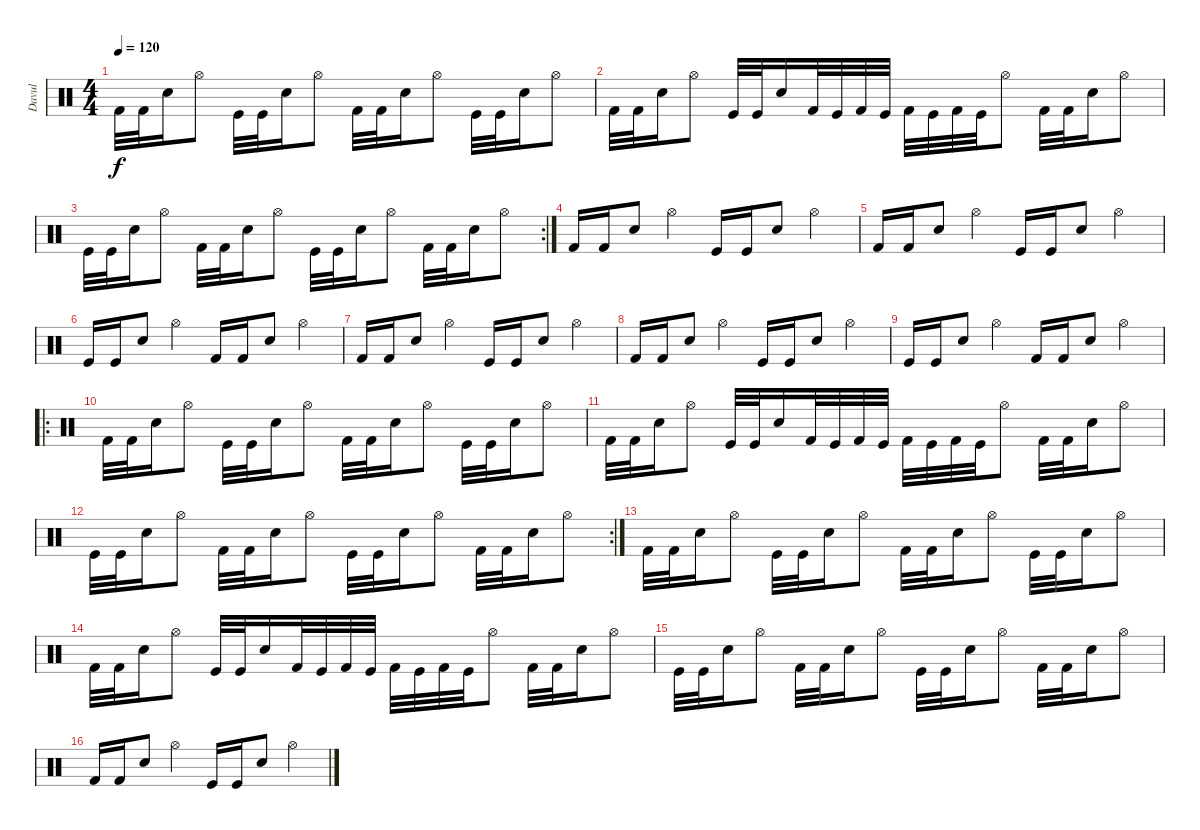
\track ("Davul" "Davul") {instrument percussion}
\staff {score}
\articulation defaults
\ts (4 4)
\tempo 120
\clef neutral
\ks c "Kick (hit) 2".32{dy f} "Kick (hit) 2".32 "Electric Snare (hit)".16 "Hi-Hat (open)".8 "Kick (hit)".32 "Kick (hit)".32 "Snare (hit) 2".16 "Hi-Hat (open)".8 "Kick (hit) 2".32 "Kick (hit) 2".32 "Electric Snare (hit)".16 "Hi-Hat (open)".8 "Kick (hit)".32 "Kick (hit)".32 "Snare (hit) 2".16 "Hi-Hat (open)".8
|
"Kick (hit) 2".32 "Kick (hit) 2".32 "Electric Snare (hit)".16 "Hi-Hat (open)".8 "Kick (hit)".32 "Kick (hit)".32 "Snare (hit) 2".16 "Kick (hit) 2".32 "Kick (hit)".32 "Kick (hit) 2".32 "Kick (hit)".32 "Kick (hit) 2".32 "Kick (hit)".32 "Kick (hit) 2".32 "Kick (hit)".32 "Hi-Hat (open)".8 "Kick (hit) 2".32 "Kick (hit) 2".32 "Electric Snare (hit)".16 "Hi-Hat (open)".8 |
\rc 2 "Kick (hit)".32 "Kick (hit)".32 "Snare (hit) 2".16 "Hi-Hat (open)".8 "Kick (hit) 2".32 "Kick (hit) 2".32 "Electric Snare (hit)".16 "Hi-Hat (open)".8 "Kick (hit)".32 "Kick (hit)".32 "Snare (hit) 2".16 "Hi-Hat (open)".8 "Kick (hit) 2".32 "Kick (hit) 2".32 "Electric Snare (hit)".16 "Hi-Hat (open)".8
|
"Kick (hit) 2".16 "Kick (hit) 2".16 "Electric Snare (hit)".8 "Hi-Hat (open)".4 "Kick (hit)".16 "Kick (hit)".16 "Snare (hit) 2".8 "Hi-Hat (open)".4 |
"Kick (hit) 2".16 "Kick (hit) 2".16 "Electric Snare (hit)".8 "Hi-Hat (open)".4 "Kick (hit)".16 "Kick (hit)".16 "Snare (hit) 2".8 "Hi-Hat (open)".4 |
"Kick (hit)".16 "Kick (hit)".16 "Snare (hit) 2".8 "Hi-Hat (open)".4 "Kick (hit) 2".16 "Kick (hit) 2".16 "Electric Snare (hit)".8 "Hi-Hat (open)".4 |
"Kick (hit) 2".16 "Kick (hit) 2".16 "Electric Snare (hit)".8 "Hi-Hat (open)".4 "Kick (hit)".16 "Kick (hit)".16 "Snare (hit) 2".8 "Hi-Hat (open)".4 |
"Kick (hit) 2".16 "Kick (hit) 2".16 "Electric Snare (hit)".8 "Hi-Hat (open)".4 "Kick (hit)".16 "Kick (hit)".16 "Snare (hit) 2".8 "Hi-Hat (open)".4 |
"Kick (hit)".16 "Kick (hit)".16 "Snare (hit) 2".8 "Hi-Hat (open)".4 "Kick (hit) 2".16 "Kick (hit) 2".16 "Electric Snare (hit)".8 "Hi-Hat (open)".4 |
\ro "Kick (hit) 2".32 "Kick (hit) 2".32 "Electric Snare (hit)".16 "Hi-Hat (open)".8 "Kick (hit)".32 "Kick (hit)".32 "Snare (hit) 2".16 "Hi-Hat (open)".8 "Kick (hit) 2".32 "Kick (hit) 2".32 "Electric Snare (hit)".16 "Hi-Hat (open)".8 "Kick (hit)".32 "Kick (hit)".32 "Snare (hit) 2".16 "Hi-Hat (open)".8
|
"Kick (hit) 2".32 "Kick (hit) 2".32 "Electric Snare (hit)".16 "Hi-Hat (open)".8 "Kick (hit)".32 "Kick (hit)".32 "Snare (hit) 2".16 "Kick (hit) 2".32 "Kick (hit)".32 "Kick (hit) 2".32 "Kick (hit)".32 "Kick (hit) 2".32 "Kick (hit)".32 "Kick (hit) 2".32 "Kick (hit)".32 "Hi-Hat (open)".8 "Kick (hit) 2".32 "Kick (hit) 2".32 "Electric Snare (hit)".16 "Hi-Hat (open)".8 |
\rc 2 "Kick (hit)".32 "Kick (hit)".32 "Snare (hit) 2".16 "Hi-Hat (open)".8 "Kick (hit) 2".32 "Kick (hit) 2".32 "Electric Snare (hit)".16 "Hi-Hat (open)".8 "Kick (hit)".32 "Kick (hit)".32 "Snare (hit) 2".16 "Hi-Hat (open)".8 "Kick (hit) 2".32 "Kick (hit) 2".32 "Electric Snare (hit)".16 "Hi-Hat (open)".8
|
"Kick (hit) 2".32 "Kick (hit) 2".32 "Electric Snare (hit)".16 "Hi-Hat (open)".8 "Kick (hit)".32 "Kick (hit)".32 "Snare (hit) 2".16 "Hi-Hat (open)".8 "Kick (hit) 2".32 "Kick (hit) 2".32 "Electric Snare (hit)".16 "Hi-Hat (open)".8 "Kick (hit)".32 "Kick (hit)".32 "Snare (hit) 2".16 "Hi-Hat (open)".8 |
"Kick (hit) 2".32 "Kick (hit) 2".32 "Electric Snare (hit)".16 "Hi-Hat (open)".8 "Kick (hit)".32 "Kick (hit)".32 "Snare (hit) 2".16 "Kick (hit) 2".32 "Kick (hit)".32 "Kick (hit) 2".32 "Kick (hit)".32 "Kick (hit) 2".32 "Kick (hit)".32 "Kick (hit) 2".32 "Kick (hit)".32 "Hi-Hat (open)".8 "Kick (hit) 2".32 "Kick (hit) 2".32 "Electric Snare (hit)".16 "Hi-Hat (open)".8 |
"Kick (hit)".32 "Kick (hit)".32 "Snare (hit) 2".16 "Hi-Hat (open)".8 "Kick (hit) 2".32 "Kick (hit) 2".32 "Electric Snare (hit)".16 "Hi-Hat (open)".8 "Kick (hit)".32 "Kick (hit)".32 "Snare (hit) 2".16 "Hi-Hat (open)".8 "Kick (hit) 2".32 "Kick (hit) 2".32 "Electric Snare (hit)".16 "Hi-Hat (open)".8 |
"Kick (hit) 2".16 "Kick (hit) 2".16 "Electric Snare (hit)".8 "Hi-Hat (open)".4 "Kick (hit)".16 "Kick (hit)".16 "Snare (hit) 2".8 "Hi-Hat (open)".4
